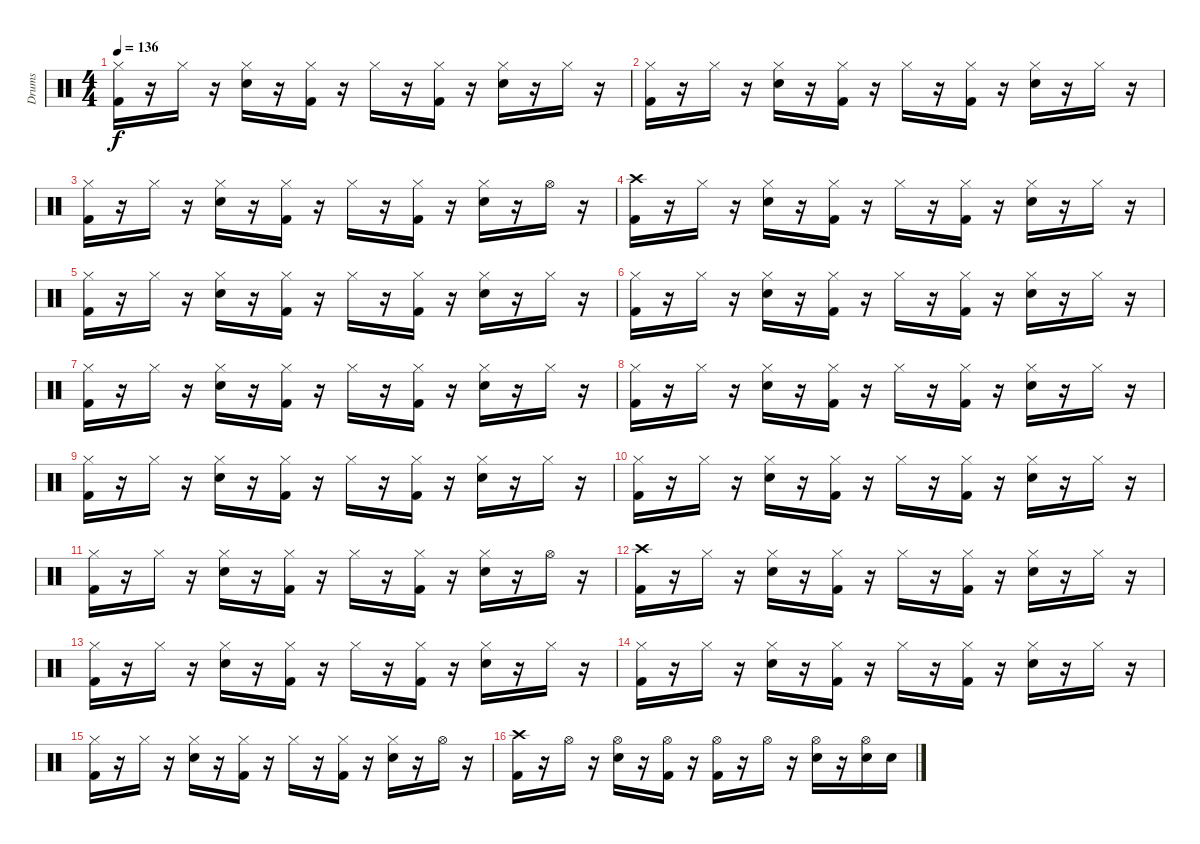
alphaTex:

\track ("Drums" "Drums") {instrument percussion}
\staff {score}
\articulation defaults
\ts (4 4)
\tempo 136
\clef neutral
\ks c
("Kick (hit) 2" "Hi-Hat (closed)").16{dy f} r.16 "Hi-Hat (closed)".16 r.16 ("Electric Snare (hit)" "Hi-Hat (closed)").16 r.16 ("Kick (hit) 2" "Hi-Hat (closed)").16 r.16 "Hi-Hat (closed)".16 r.16 ("Kick (hit) 2" "Hi-Hat (closed)").16 r.16 ("Electric Snare (hit)" "Hi-Hat (closed)").16 r.16 "Hi-Hat (closed)".16 r.16 |
("Kick (hit) 2" "Hi-Hat (closed)").16 r.16 "Hi-Hat (closed)".16 r.16 ("Electric Snare (hit)" "Hi-Hat (closed)").16 r.16 ("Kick (hit) 2" "Hi-Hat (closed)").16 r.16 "Hi-Hat (closed)".16 r.16 ("Kick (hit) 2" "Hi-Hat (closed)").16 r.16 ("Electric Snare (hit)" "Hi-Hat (closed)").16 r.16 "Hi-Hat (closed)".16 r.16 |
("Kick (hit) 2" "Hi-Hat (closed)").16 r.16 "Hi-Hat (closed)".16 r.16 ("Electric Snare (hit)" "Hi-Hat (closed)").16 r.16 ("Kick (hit) 2" "Hi-Hat (closed)").16 r.16 "Hi-Hat (closed)".16 r.16 ("Kick (hit) 2" "Hi-Hat (closed)").16 r.16 ("Electric Snare (hit)" "Hi-Hat (closed)").16 r.16 "Hi-Hat (open)".16 r.16 |
("Kick (hit) 2" "Crash high (hit)").16 r.16 "Hi-Hat (closed)".16 r.16 ("Electric Snare (hit)" "Hi-Hat (closed)").16 r.16 ("Kick (hit) 2" "Hi-Hat (closed)").16 r.16 "Hi-Hat (closed)".16 r.16 ("Kick (hit) 2" "Hi-Hat (closed)").16 r.16 ("Electric Snare (hit)" "Hi-Hat (closed)").16 r.16 "Hi-Hat (closed)".16 r.16 |
("Kick (hit) 2" "Hi-Hat (closed)").16 r.16 "Hi-Hat (closed)".16 r.16 ("Electric Snare (hit)" "Hi-Hat (closed)").16 r.16 ("Kick (hit) 2" "Hi-Hat (closed)").16 r.16 "Hi-Hat (closed)".16 r.16 ("Kick (hit) 2" "Hi-Hat (closed)").16 r.16 ("Electric Snare (hit)" "Hi-Hat (closed)").16 r.16 "Hi-Hat (closed)".16 r.16 |
("Kick (hit) 2" "Hi-Hat (closed)").16 r.16 "Hi-Hat (closed)".16 r.16 ("Electric Snare (hit)" "Hi-Hat (closed)").16 r.16 ("Kick (hit) 2" "Hi-Hat (closed)").16 r.16 "Hi-Hat (closed)".16 r.16 ("Kick (hit) 2" "Hi-Hat (closed)").16 r.16 ("Electric Snare (hit)" "Hi-Hat (closed)").16 r.16 "Hi-Hat (closed)".16 r.16 |
("Kick (hit) 2" "Hi-Hat (closed)").16 r.16 "Hi-Hat (closed)".16 r.16 ("Electric Snare (hit)" "Hi-Hat (closed)").16 r.16 ("Kick (hit) 2" "Hi-Hat (closed)").16 r.16 "Hi-Hat (closed)".16 r.16 ("Kick (hit) 2" "Hi-Hat (closed)").16 r.16 ("Electric Snare (hit)" "Hi-Hat (closed)").16 r.16 "Hi-Hat (closed)".16 r.16 |
("Kick (hit) 2" "Hi-Hat (closed)").16 r.16 "Hi-Hat (closed)".16 r.16 ("Electric Snare (hit)" "Hi-Hat (closed)").16 r.16 ("Kick (hit) 2" "Hi-Hat (closed)").16 r.16 "Hi-Hat (closed)".16 r.16 ("Kick (hit) 2" "Hi-Hat (closed)").16 r.16 ("Electric Snare (hit)" "Hi-Hat (closed)").16 r.16 "Hi-Hat (closed)".16 r.16 |
("Kick (hit) 2" "Hi-Hat (closed)").16 r.16 "Hi-Hat (closed)".16 r.16 ("Electric Snare (hit)" "Hi-Hat (closed)").16 r.16 ("Kick (hit) 2" "Hi-Hat (closed)").16 r.16 "Hi-Hat (closed)".16 r.16 ("Kick (hit) 2" "Hi-Hat (closed)").16 r.16 ("Electric Snare (hit)" "Hi-Hat (closed)").16 r.16 "Hi-Hat (closed)".16 r.16 |
("Kick (hit) 2" "Hi-Hat (closed)").16 r.16 "Hi-Hat (closed)".16 r.16 ("Electric Snare (hit)" "Hi-Hat (closed)").16 r.16 ("Kick (hit) 2" "Hi-Hat (closed)").16 r.16 "Hi-Hat (closed)".16 r.16 ("Kick (hit) 2" "Hi-Hat (closed)").16 r.16 ("Electric Snare (hit)" "Hi-Hat (closed)").16 r.16 "Hi-Hat (closed)".16 r.16 |
("Kick (hit) 2" "Hi-Hat (closed)").16 r.16 "Hi-Hat (closed)".16 r.16 ("Electric Snare (hit)" "Hi-Hat (closed)").16 r.16 ("Kick (hit) 2" "Hi-Hat (closed)").16 r.16 "Hi-Hat (closed)".16 r.16 ("Kick (hit) 2" "Hi-Hat (closed)").16 r.16 ("Electric Snare (hit)" "Hi-Hat (closed)").16 r.16 "Hi-Hat (open)".16 r.16 |
("Kick (hit) 2" "Crash high (hit)").16 r.16 "Hi-Hat (closed)".16 r.16 ("Electric Snare (hit)" "Hi-Hat (closed)").16 r.16 ("Kick (hit) 2" "Hi-Hat (closed)").16 r.16 "Hi-Hat (closed)".16 r.16 ("Kick (hit) 2" "Hi-Hat (closed)").16 r.16 ("Electric Snare (hit)" "Hi-Hat (closed)").16 r.16 "Hi-Hat (closed)".16 r.16 |
("Kick (hit) 2" "Hi-Hat (closed)").16 r.16 "Hi-Hat (closed)".16 r.16 ("Electric Snare (hit)" "Hi-Hat (closed)").16 r.16 ("Kick (hit) 2" "Hi-Hat (closed)").16 r.16 "Hi-Hat (closed)".16 r.16 ("Kick (hit) 2" "Hi-Hat (closed)").16 r.16 ("Electric Snare (hit)" "Hi-Hat (closed)").16 r.16 "Hi-Hat (closed)".16 r.16 |
("Kick (hit) 2" "Hi-Hat (closed)").16 r.16 "Hi-Hat (closed)".16 r.16 ("Electric Snare (hit)" "Hi-Hat (closed)").16 r.16 ("Kick (hit) 2" "Hi-Hat (closed)").16 r.16 "Hi-Hat (closed)".16 r.16 ("Kick (hit) 2" "Hi-Hat (closed)").16 r.16 ("Electric Snare (hit)" "Hi-Hat (closed)").16 r.16 "Hi-Hat (closed)".16 r.16 |
("Kick (hit) 2" "Hi-Hat (closed)").16 r.16 "Hi-Hat (closed)".16 r.16 ("Electric Snare (hit)" "Hi-Hat (closed)").16 r.16 ("Kick (hit) 2" "Hi-Hat (closed)").16 r.16 "Hi-Hat (closed)".16 r.16 ("Kick (hit) 2" "Hi-Hat (closed)").16 r.16 ("Electric Snare (hit)" "Hi-Hat (closed)").16 r.16 "Hi-Hat (open)".16 r.16 |
("Kick (hit) 2" "Crash high (hit)").16 r.16 "Hi-Hat (open)".16 r.16 ("Electric Snare (hit)" "Hi-Hat (open)").16 r.16 ("Kick (hit) 2" "Hi-Hat (open)").16 r.16 ("Kick (hit) 2" "Hi-Hat (open)").16 r.16 "Hi-Hat (open)".16 r.16 ("Electric Snare (hit)" "Hi-Hat (open)").16 r.16 ("Electric Snare (hit)" "Hi-Hat (open)").16 "Electric Snare (hit)".16
